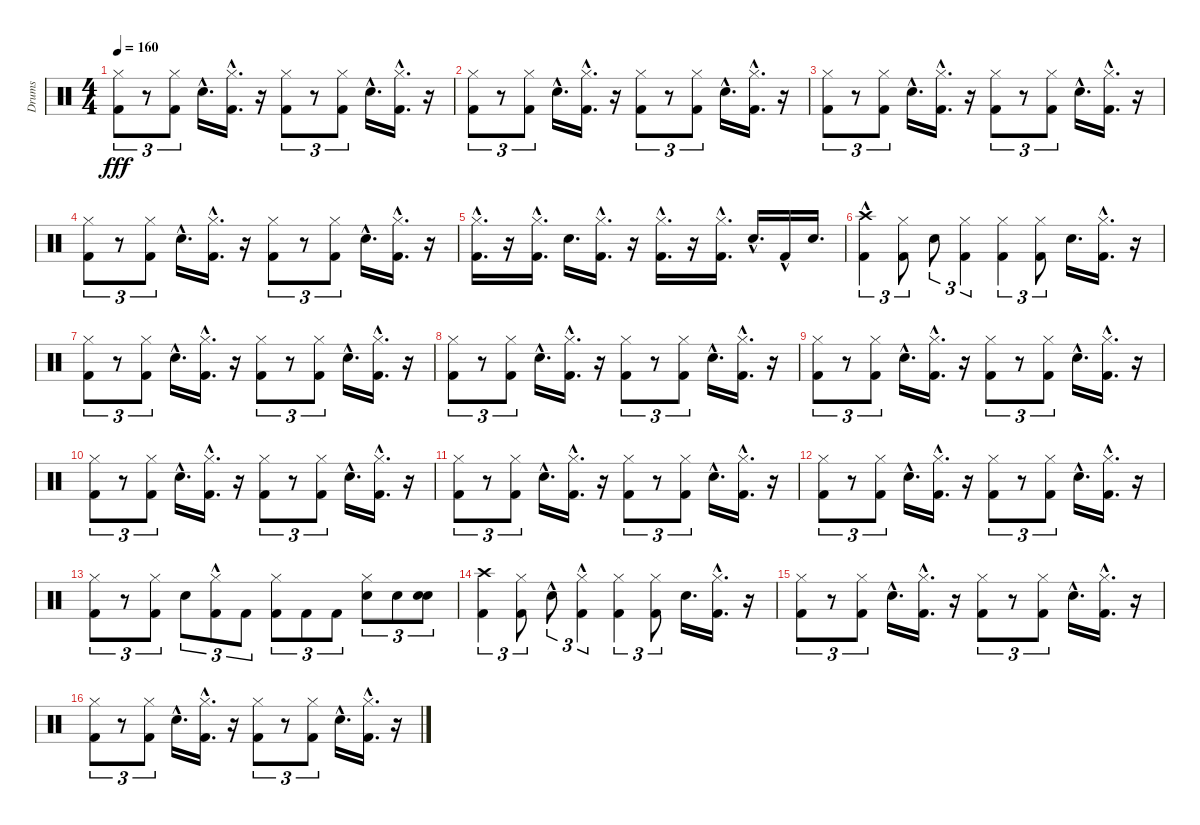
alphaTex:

\track ("Drums" "Drums") {instrument percussion}
\staff {score}
\articulation defaults
\ts (4 4)
\tempo 160
\clef neutral
\ks c
("Kick (hit) 2" "Hi-Hat (closed)").8{tu (3 2) dy fff} r.8{tu (3 2)} ("Kick (hit) 2" "Hi-Hat (closed)").8{tu (3 2)} "Snare (hit) 2"{hac}.16{d} ("Kick (hit) 2"{hac} "Hi-Hat (closed)"{hac}).16{d} r.16 ("Kick (hit) 2" "Hi-Hat (closed)").8{tu (3 2)} r.8{tu (3 2)} ("Kick (hit) 2" "Hi-Hat (closed)").8{tu (3 2)} "Snare (hit) 2"{hac}.16{d} ("Kick (hit) 2"{hac} "Hi-Hat (closed)"{hac}).16{d} r.16 |
("Kick (hit) 2" "Hi-Hat (closed)").8{tu (3 2)} r.8{tu (3 2)} ("Kick (hit) 2" "Hi-Hat (closed)").8{tu (3 2)} "Snare (hit) 2"{hac}.16{d} ("Kick (hit) 2"{hac} "Hi-Hat (closed)"{hac}).16{d} r.16 ("Kick (hit) 2" "Hi-Hat (closed)").8{tu (3 2)} r.8{tu (3 2)} ("Kick (hit) 2" "Hi-Hat (closed)").8{tu (3 2)} "Snare (hit) 2"{hac}.16{d} ("Kick (hit) 2"{hac} "Hi-Hat (closed)"{hac}).16{d} r.16 |
("Kick (hit) 2" "Hi-Hat (closed)").8{tu (3 2)} r.8{tu (3 2)} ("Kick (hit) 2" "Hi-Hat (closed)").8{tu (3 2)} "Snare (hit) 2"{hac}.16{d} ("Kick (hit) 2"{hac} "Hi-Hat (closed)"{hac}).16{d} r.16 ("Kick (hit) 2" "Hi-Hat (closed)").8{tu (3 2)} r.8{tu (3 2)} ("Kick (hit) 2" "Hi-Hat (closed)").8{tu (3 2)} "Snare (hit) 2"{hac}.16{d} ("Kick (hit) 2"{hac} "Hi-Hat (closed)"{hac}).16{d} r.16 |
("Kick (hit) 2" "Hi-Hat (closed)").8{tu (3 2)} r.8{tu (3 2)} ("Kick (hit) 2" "Hi-Hat (closed)").8{tu (3 2)} "Snare (hit) 2"{hac}.16{d} ("Kick (hit) 2"{hac} "Hi-Hat (closed)"{hac}).16{d} r.16 ("Kick (hit) 2" "Hi-Hat (closed)").8{tu (3 2)} r.8{tu (3 2)} ("Kick (hit) 2" "Hi-Hat (closed)").8{tu (3 2)} "Snare (hit) 2"{hac}.16{d} ("Kick (hit) 2"{hac} "Hi-Hat (closed)"{hac}).16{d} r.16 |
("Kick (hit) 2"{hac} "Hi-Hat (closed)"{hac}).16{d} r.16 ("Kick (hit) 2"{hac} "Hi-Hat (closed)"{hac}).16{d} "Snare (hit) 2".16{d} ("Kick (hit) 2"{hac} "Hi-Hat (closed)"{hac}).16{d} r.16 ("Kick (hit) 2"{hac} "Hi-Hat (closed)"{hac}).16{d} r.16 ("Kick (hit) 2"{hac} "Hi-Hat (closed)").16{d} "Snare (hit) 2"{hac}.16{d} "Kick (hit) 2"{hac}.16 "Snare (hit) 2".16{d} |
("Kick (hit) 2"{hac} "Crash high (hit)").4{tu (3 2)} ("Kick (hit) 2" "Hi-Hat (closed)").8{tu (3 2)} "Snare (hit) 2".8{tu (3 2)} ("Kick (hit) 2" "Hi-Hat (closed)").4{tu (3 2)} ("Kick (hit) 2" "Hi-Hat (closed)").4{tu (3 2)} ("Kick (hit) 2" "Hi-Hat (closed)").8{tu (3 2)} "Snare (hit) 2".16{d} ("Kick (hit) 2"{hac} "Hi-Hat (closed)"{hac}).16{d} r.16 |
("Kick (hit) 2" "Hi-Hat (closed)").8{tu (3 2)} r.8{tu (3 2)} ("Kick (hit) 2" "Hi-Hat (closed)").8{tu (3 2)} "Snare (hit) 2"{hac}.16{d} ("Kick (hit) 2"{hac} "Hi-Hat (closed)"{hac}).16{d} r.16 ("Kick (hit) 2" "Hi-Hat (closed)").8{tu (3 2)} r.8{tu (3 2)} ("Kick (hit) 2" "Hi-Hat (closed)").8{tu (3 2)} "Snare (hit) 2"{hac}.16{d} ("Kick (hit) 2"{hac} "Hi-Hat (closed)"{hac}).16{d} r.16 |
("Kick (hit) 2" "Hi-Hat (closed)").8{tu (3 2)} r.8{tu (3 2)} ("Kick (hit) 2" "Hi-Hat (closed)").8{tu (3 2)} "Snare (hit) 2"{hac}.16{d} ("Kick (hit) 2"{hac} "Hi-Hat (closed)"{hac}).16{d} r.16 ("Kick (hit) 2" "Hi-Hat (closed)").8{tu (3 2)} r.8{tu (3 2)} ("Kick (hit) 2" "Hi-Hat (closed)").8{tu (3 2)} "Snare (hit) 2"{hac}.16{d} ("Kick (hit) 2"{hac} "Hi-Hat (closed)"{hac}).16{d} r.16 |
("Kick (hit) 2" "Hi-Hat (closed)").8{tu (3 2)} r.8{tu (3 2)} ("Kick (hit) 2" "Hi-Hat (closed)").8{tu (3 2)} "Snare (hit) 2"{hac}.16{d} ("Kick (hit) 2"{hac} "Hi-Hat (closed)"{hac}).16{d} r.16 ("Kick (hit) 2" "Hi-Hat (closed)").8{tu (3 2)} r.8{tu (3 2)} ("Kick (hit) 2" "Hi-Hat (closed)").8{tu (3 2)} "Snare (hit) 2"{hac}.16{d} ("Kick (hit) 2"{hac} "Hi-Hat (closed)"{hac}).16{d} r.16 |
("Kick (hit) 2" "Hi-Hat (closed)").8{tu (3 2)} r.8{tu (3 2)} ("Kick (hit) 2" "Hi-Hat (closed)").8{tu (3 2)} "Snare (hit) 2"{hac}.16{d} ("Kick (hit) 2"{hac} "Hi-Hat (closed)"{hac}).16{d} r.16 ("Kick (hit) 2" "Hi-Hat (closed)").8{tu (3 2)} r.8{tu (3 2)} ("Kick (hit) 2" "Hi-Hat (closed)").8{tu (3 2)} "Snare (hit) 2"{hac}.16{d} ("Kick (hit) 2"{hac} "Hi-Hat (closed)"{hac}).16{d} r.16 |
("Kick (hit) 2" "Hi-Hat (closed)").8{tu (3 2)} r.8{tu (3 2)} ("Kick (hit) 2" "Hi-Hat (closed)").8{tu (3 2)} "Snare (hit) 2"{hac}.16{d} ("Kick (hit) 2"{hac} "Hi-Hat (closed)"{hac}).16{d} r.16 ("Kick (hit) 2" "Hi-Hat (closed)").8{tu (3 2)} r.8{tu (3 2)} ("Kick (hit) 2" "Hi-Hat (closed)").8{tu (3 2)} "Snare (hit) 2"{hac}.16{d} ("Kick (hit) 2"{hac} "Hi-Hat (closed)"{hac}).16{d} r.16 |
("Kick (hit) 2" "Hi-Hat (closed)").8{tu (3 2)} r.8{tu (3 2)} ("Kick (hit) 2" "Hi-Hat (closed)").8{tu (3 2)} "Snare (hit) 2"{hac}.16{d} ("Kick (hit) 2"{hac} "Hi-Hat (closed)"{hac}).16{d} r.16 ("Kick (hit) 2" "Hi-Hat (closed)").8{tu (3 2)} r.8{tu (3 2)} ("Kick (hit) 2" "Hi-Hat (closed)").8{tu (3 2)} "Snare (hit) 2"{hac}.16{d} ("Kick (hit) 2"{hac} "Hi-Hat (closed)"{hac}).16{d} r.16 |
("Kick (hit) 2" "Hi-Hat (closed)").8{tu (3 2)} r.8{tu (3 2)} ("Kick (hit) 2" "Hi-Hat (closed)").8{tu (3 2)} "Snare (hit) 2".8{tu (3 2)} ("Kick (hit) 2"{hac} "Hi-Hat (closed)"{hac}).8{tu (3 2)} "Kick (hit) 2".8{tu (3 2)} ("Kick (hit) 2" "Hi-Hat (closed)").8{tu (3 2)} "Kick (hit) 2".8{tu (3 2)} "Kick (hit) 2".8{tu (3 2)} ("Snare (hit) 2" "Hi-Hat (closed)").8{tu (3 2)} "Snare (hit) 2".8{tu (3 2)} ("Snare (hit) 2" "Snare (hit) 2").8{tu (3 2)} |
("Kick (hit) 2" "Crash high (hit)").4{tu (3 2)} ("Kick (hit) 2" "Hi-Hat (closed)").8{tu (3 2)} "Snare (hit) 2"{hac}.8{tu (3 2)} ("Kick (hit) 2"{hac} "Hi-Hat (closed)").4{tu (3 2)} ("Kick (hit) 2" "Hi-Hat (closed)").4{tu (3 2)} ("Kick (hit) 2" "Hi-Hat (closed)").8{tu (3 2)} "Snare (hit) 2".16{d} ("Kick (hit) 2"{hac} "Hi-Hat (closed)"{hac}).16{d} r.16 |
("Kick (hit) 2" "Hi-Hat (closed)").8{tu (3 2)} r.8{tu (3 2)} ("Kick (hit) 2" "Hi-Hat (closed)").8{tu (3 2)} "Snare (hit) 2"{hac}.16{d} ("Kick (hit) 2"{hac} "Hi-Hat (closed)"{hac}).16{d} r.16 ("Kick (hit) 2" "Hi-Hat (closed)").8{tu (3 2)} r.8{tu (3 2)} ("Kick (hit) 2" "Hi-Hat (closed)").8{tu (3 2)} "Snare (hit) 2"{hac}.16{d} ("Kick (hit) 2"{hac} "Hi-Hat (closed)"{hac}).16{d} r.16 |
("Kick (hit) 2" "Hi-Hat (closed)").8{tu (3 2)} r.8{tu (3 2)} ("Kick (hit) 2" "Hi-Hat (closed)").8{tu (3 2)} "Snare (hit) 2"{hac}.16{d} ("Kick (hit) 2"{hac} "Hi-Hat (closed)"{hac}).16{d} r.16 ("Kick (hit) 2" "Hi-Hat (closed)").8{tu (3 2)} r.8{tu (3 2)} ("Kick (hit) 2" "Hi-Hat (closed)").8{tu (3 2)} "Snare (hit) 2"{hac}.16{d} ("Kick (hit) 2"{hac} "Hi-Hat (closed)"{hac}).16{d} r.16
